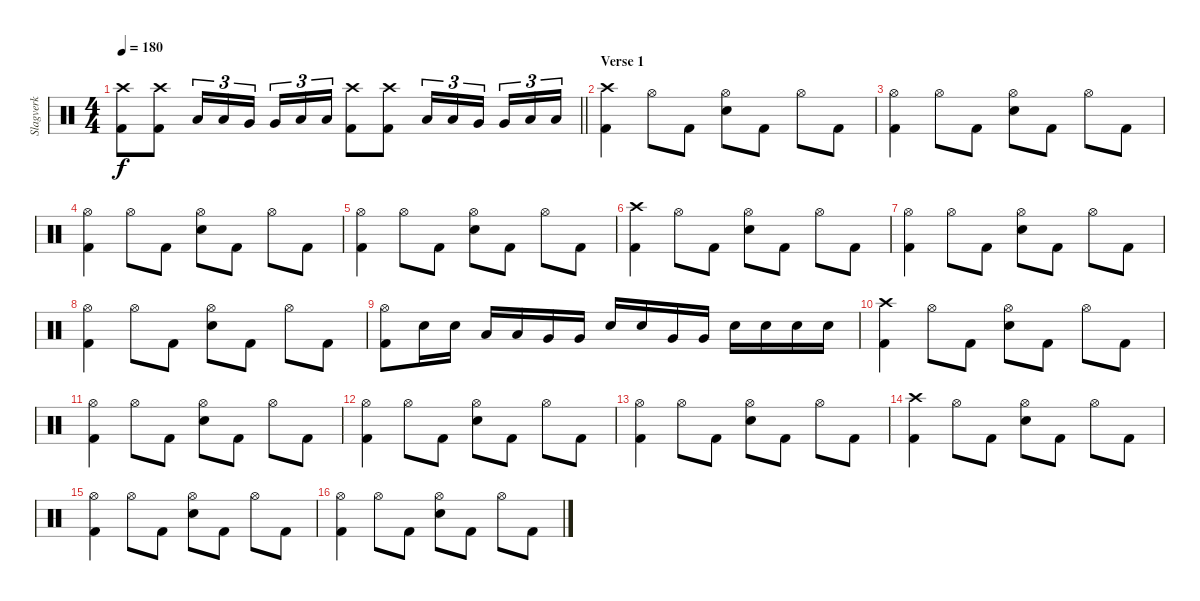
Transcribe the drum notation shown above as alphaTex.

\track ("Slagverk" "Slagverk") {instrument percussion}
\staff {score}
\articulation defaults
\ts (4 4)
\tempo 180
\clef neutral
\barLineRight lightlight
\ks c
("Crash high (hit)" "Kick (hit) 2").8{dy f} ("Crash high (hit)" "Kick (hit) 2").8 "Low Tom (hit)".16{tu (3 2)} "Low Tom (hit)".16{tu (3 2)} "Very Low Tom (hit)".16{tu (3 2) beam splitsecondary} "Very Low Tom (hit)".16{tu (3 2)} "Low Floor Tom (hit)".16{tu (3 2)} "Low Floor Tom (hit)".16{tu (3 2)} ("Crash high (hit)" "Kick (hit) 2").8 ("Crash high (hit)" "Kick (hit) 2").8 "Low Tom (hit)".16{tu (3 2)} "Low Tom (hit)".16{tu (3 2)} "Very Low Tom (hit)".16{tu (3 2) beam splitsecondary} "Very Low Tom (hit)".16{tu (3 2)} "Low Floor Tom (hit)".16{tu (3 2)} "Low Floor Tom (hit)".16{tu (3 2)} |
\section ("" "Verse 1")
("Crash high (hit)" "Kick (hit) 2").4 "Hi-Hat (open)".8 "Kick (hit) 2".8 ("Hi-Hat (open)" "Electric Snare (hit)").8 "Kick (hit) 2".8 "Hi-Hat (open)".8 "Kick (hit) 2".8 |
("Hi-Hat (open)" "Kick (hit) 2").4 "Hi-Hat (open)".8 "Kick (hit) 2".8 ("Hi-Hat (open)" "Electric Snare (hit)").8 "Kick (hit) 2".8 "Hi-Hat (open)".8 "Kick (hit) 2".8 |
("Hi-Hat (open)" "Kick (hit) 2").4 "Hi-Hat (open)".8 "Kick (hit) 2".8 ("Hi-Hat (open)" "Electric Snare (hit)").8 "Kick (hit) 2".8 "Hi-Hat (open)".8 "Kick (hit) 2".8 |
("Hi-Hat (open)" "Kick (hit) 2").4 "Hi-Hat (open)".8 "Kick (hit) 2".8 ("Hi-Hat (open)" "Electric Snare (hit)").8 "Kick (hit) 2".8 "Hi-Hat (open)".8 "Kick (hit) 2".8 |
("Crash high (hit)" "Kick (hit) 2").4 "Hi-Hat (open)".8 "Kick (hit) 2".8 ("Hi-Hat (open)" "Electric Snare (hit)").8 "Kick (hit) 2".8 "Hi-Hat (open)".8 "Kick (hit) 2".8 |
("Hi-Hat (open)" "Kick (hit) 2").4 "Hi-Hat (open)".8 "Kick (hit) 2".8 ("Hi-Hat (open)" "Electric Snare (hit)").8 "Kick (hit) 2".8 "Hi-Hat (open)".8 "Kick (hit) 2".8 |
("Hi-Hat (open)" "Kick (hit) 2").4 "Hi-Hat (open)".8 "Kick (hit) 2".8 ("Hi-Hat (open)" "Electric Snare (hit)").8 "Kick (hit) 2".8 "Hi-Hat (open)".8 "Kick (hit) 2".8 |
("Hi-Hat (open)" "Kick (hit) 2").8 "Electric Snare (hit)".16 "Electric Snare (hit)".16 "Low Tom (hit)".16 "Low Tom (hit)".16 "Very Low Tom (hit)".16 "Very Low Tom (hit)".16 "Electric Snare (hit)".16 "Electric Snare (hit)".16 "Very Low Tom (hit)".16 "Very Low Tom (hit)".16 "Electric Snare (hit)".16 "Electric Snare (hit)".16 "Electric Snare (hit)".16 "Electric Snare (hit)".16 |
("Crash high (hit)" "Kick (hit) 2").4 "Hi-Hat (open)".8 "Kick (hit) 2".8 ("Hi-Hat (open)" "Electric Snare (hit)").8 "Kick (hit) 2".8 "Hi-Hat (open)".8 "Kick (hit) 2".8 |
("Hi-Hat (open)" "Kick (hit) 2").4 "Hi-Hat (open)".8 "Kick (hit) 2".8 ("Hi-Hat (open)" "Electric Snare (hit)").8 "Kick (hit) 2".8 "Hi-Hat (open)".8 "Kick (hit) 2".8 |
("Hi-Hat (open)" "Kick (hit) 2").4 "Hi-Hat (open)".8 "Kick (hit) 2".8 ("Hi-Hat (open)" "Electric Snare (hit)").8 "Kick (hit) 2".8 "Hi-Hat (open)".8 "Kick (hit) 2".8 |
("Hi-Hat (open)" "Kick (hit) 2").4 "Hi-Hat (open)".8 "Kick (hit) 2".8 ("Hi-Hat (open)" "Electric Snare (hit)").8 "Kick (hit) 2".8 "Hi-Hat (open)".8 "Kick (hit) 2".8 |
("Crash high (hit)" "Kick (hit) 2").4 "Hi-Hat (open)".8 "Kick (hit) 2".8 ("Hi-Hat (open)" "Electric Snare (hit)").8 "Kick (hit) 2".8 "Hi-Hat (open)".8 "Kick (hit) 2".8 |
("Hi-Hat (open)" "Kick (hit) 2").4 "Hi-Hat (open)".8 "Kick (hit) 2".8 ("Hi-Hat (open)" "Electric Snare (hit)").8 "Kick (hit) 2".8 "Hi-Hat (open)".8 "Kick (hit) 2".8 |
("Hi-Hat (open)" "Kick (hit) 2").4 "Hi-Hat (open)".8 "Kick (hit) 2".8 ("Hi-Hat (open)" "Electric Snare (hit)").8 "Kick (hit) 2".8 "Hi-Hat (open)".8 "Kick (hit) 2".8
